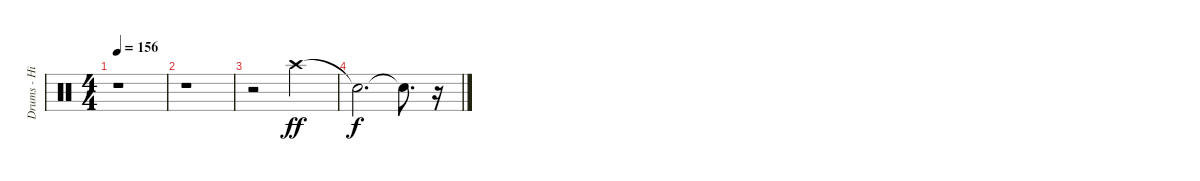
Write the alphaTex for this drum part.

\track ("Drums - Hi Hat/Cymbals" "Drums - Hi") {instrument percussion}
\staff {score}
\articulation defaults
\ts (4 4)
\tempo 156
\clef neutral
\ks c
r.1{dy ff} |
r.1 |
r.2 "Crash high (hit)".2 |
"Snare (hit)"{t}.2{d dy f} "Snare (hit)"{t}.8{d} r.16
